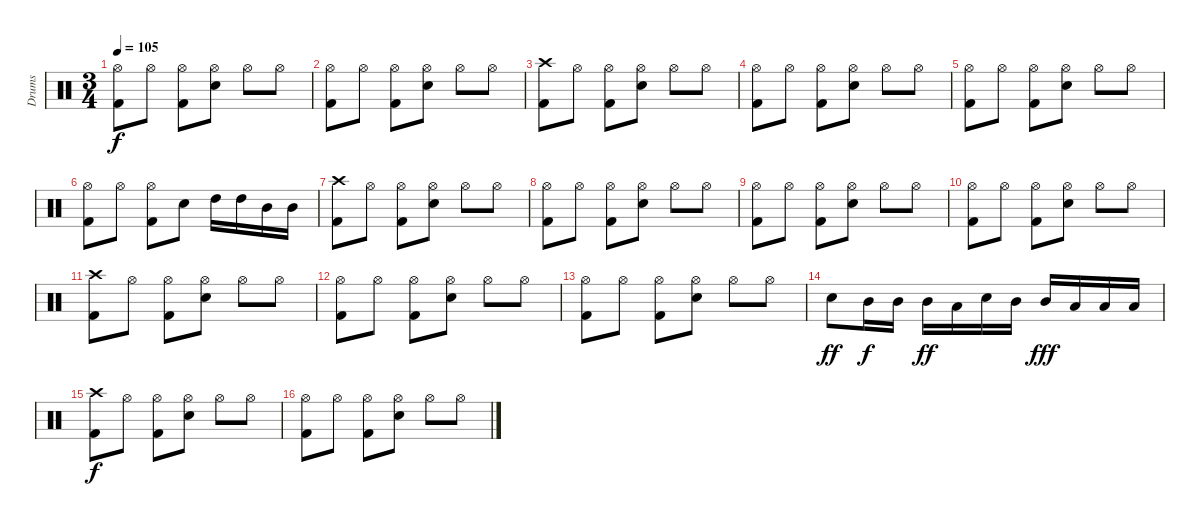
\track ("Drums" "Drums") {instrument percussion}
\staff {score}
\articulation defaults
\ts (3 4)
\tempo 105
\clef neutral
\ks c
("Hi-Hat (open)" "Kick (hit) 2").8{dy f} "Hi-Hat (open)".8 ("Hi-Hat (open)" "Kick (hit) 2").8 ("Hi-Hat (open)" "Snare (hit) 2").8 "Hi-Hat (open)".8 "Hi-Hat (open)".8 |
("Hi-Hat (open)" "Kick (hit) 2").8 "Hi-Hat (open)".8 ("Hi-Hat (open)" "Kick (hit) 2").8 ("Hi-Hat (open)" "Snare (hit) 2").8 "Hi-Hat (open)".8 "Hi-Hat (open)".8 |
("Crash high (hit)" "Kick (hit) 2").8 "Hi-Hat (open)".8 ("Hi-Hat (open)" "Kick (hit) 2").8 ("Hi-Hat (open)" "Snare (hit) 2").8 "Hi-Hat (open)".8 "Hi-Hat (open)".8 |
("Hi-Hat (open)" "Kick (hit) 2").8 "Hi-Hat (open)".8 ("Hi-Hat (open)" "Kick (hit) 2").8 ("Hi-Hat (open)" "Snare (hit) 2").8 "Hi-Hat (open)".8 "Hi-Hat (open)".8 |
("Hi-Hat (open)" "Kick (hit) 2").8 "Hi-Hat (open)".8 ("Hi-Hat (open)" "Kick (hit) 2").8 ("Hi-Hat (open)" "Snare (hit) 2").8 "Hi-Hat (open)".8 "Hi-Hat (open)".8 |
("Hi-Hat (open)" "Kick (hit) 2").8 "Hi-Hat (open)".8 ("Hi-Hat (open)" "Kick (hit) 2").8 "Snare (hit) 2".8 "High Tom (hit)".16 "High Tom (hit)".16 "Mid Tom (hit)".16 "Mid Tom (hit)".16 |
("Crash high (hit)" "Kick (hit) 2").8 "Hi-Hat (open)".8 ("Hi-Hat (open)" "Kick (hit) 2").8 ("Hi-Hat (open)" "Snare (hit) 2").8 "Hi-Hat (open)".8 "Hi-Hat (open)".8 |
("Hi-Hat (open)" "Kick (hit) 2").8 "Hi-Hat (open)".8 ("Hi-Hat (open)" "Kick (hit) 2").8 ("Hi-Hat (open)" "Snare (hit) 2").8 "Hi-Hat (open)".8 "Hi-Hat (open)".8 |
("Hi-Hat (open)" "Kick (hit) 2").8 "Hi-Hat (open)".8 ("Hi-Hat (open)" "Kick (hit) 2").8 ("Hi-Hat (open)" "Snare (hit) 2").8 "Hi-Hat (open)".8 "Hi-Hat (open)".8 |
("Hi-Hat (open)" "Kick (hit) 2").8 "Hi-Hat (open)".8 ("Hi-Hat (open)" "Kick (hit) 2").8 ("Hi-Hat (open)" "Snare (hit) 2").8 "Hi-Hat (open)".8 "Hi-Hat (open)".8 |
("Crash high (hit)" "Kick (hit) 2").8 "Hi-Hat (open)".8 ("Hi-Hat (open)" "Kick (hit) 2").8 ("Hi-Hat (open)" "Snare (hit) 2").8 "Hi-Hat (open)".8 "Hi-Hat (open)".8 |
("Hi-Hat (open)" "Kick (hit) 2").8 "Hi-Hat (open)".8 ("Hi-Hat (open)" "Kick (hit) 2").8 ("Hi-Hat (open)" "Snare (hit) 2").8 "Hi-Hat (open)".8 "Hi-Hat (open)".8 |
("Hi-Hat (open)" "Kick (hit) 2").8 "Hi-Hat (open)".8 ("Hi-Hat (open)" "Kick (hit) 2").8 ("Hi-Hat (open)" "Snare (hit) 2").8 "Hi-Hat (open)".8 "Hi-Hat (open)".8 |
"Snare (hit) 2".8{dy ff volume 13} "Mid Tom (hit)".16{dy f} "Mid Tom (hit)".16 "Mid Tom (hit)".16{dy ff} "Low Tom (hit)".16 "Snare (hit) 2".16 "Mid Tom (hit)".16 "Mid Tom (hit)".16{dy fff} "Low Tom (hit)".16 "Low Tom (hit)".16 "Low Tom (hit)".16 |
("Crash high (hit)" "Kick (hit) 2").8{dy f volume 8} "Hi-Hat (open)".8 ("Hi-Hat (open)" "Kick (hit) 2").8 ("Hi-Hat (open)" "Snare (hit) 2").8 "Hi-Hat (open)".8 "Hi-Hat (open)".8 |
("Hi-Hat (open)" "Kick (hit) 2").8 "Hi-Hat (open)".8 ("Hi-Hat (open)" "Kick (hit) 2").8 ("Hi-Hat (open)" "Snare (hit) 2").8 "Hi-Hat (open)".8 "Hi-Hat (open)".8
